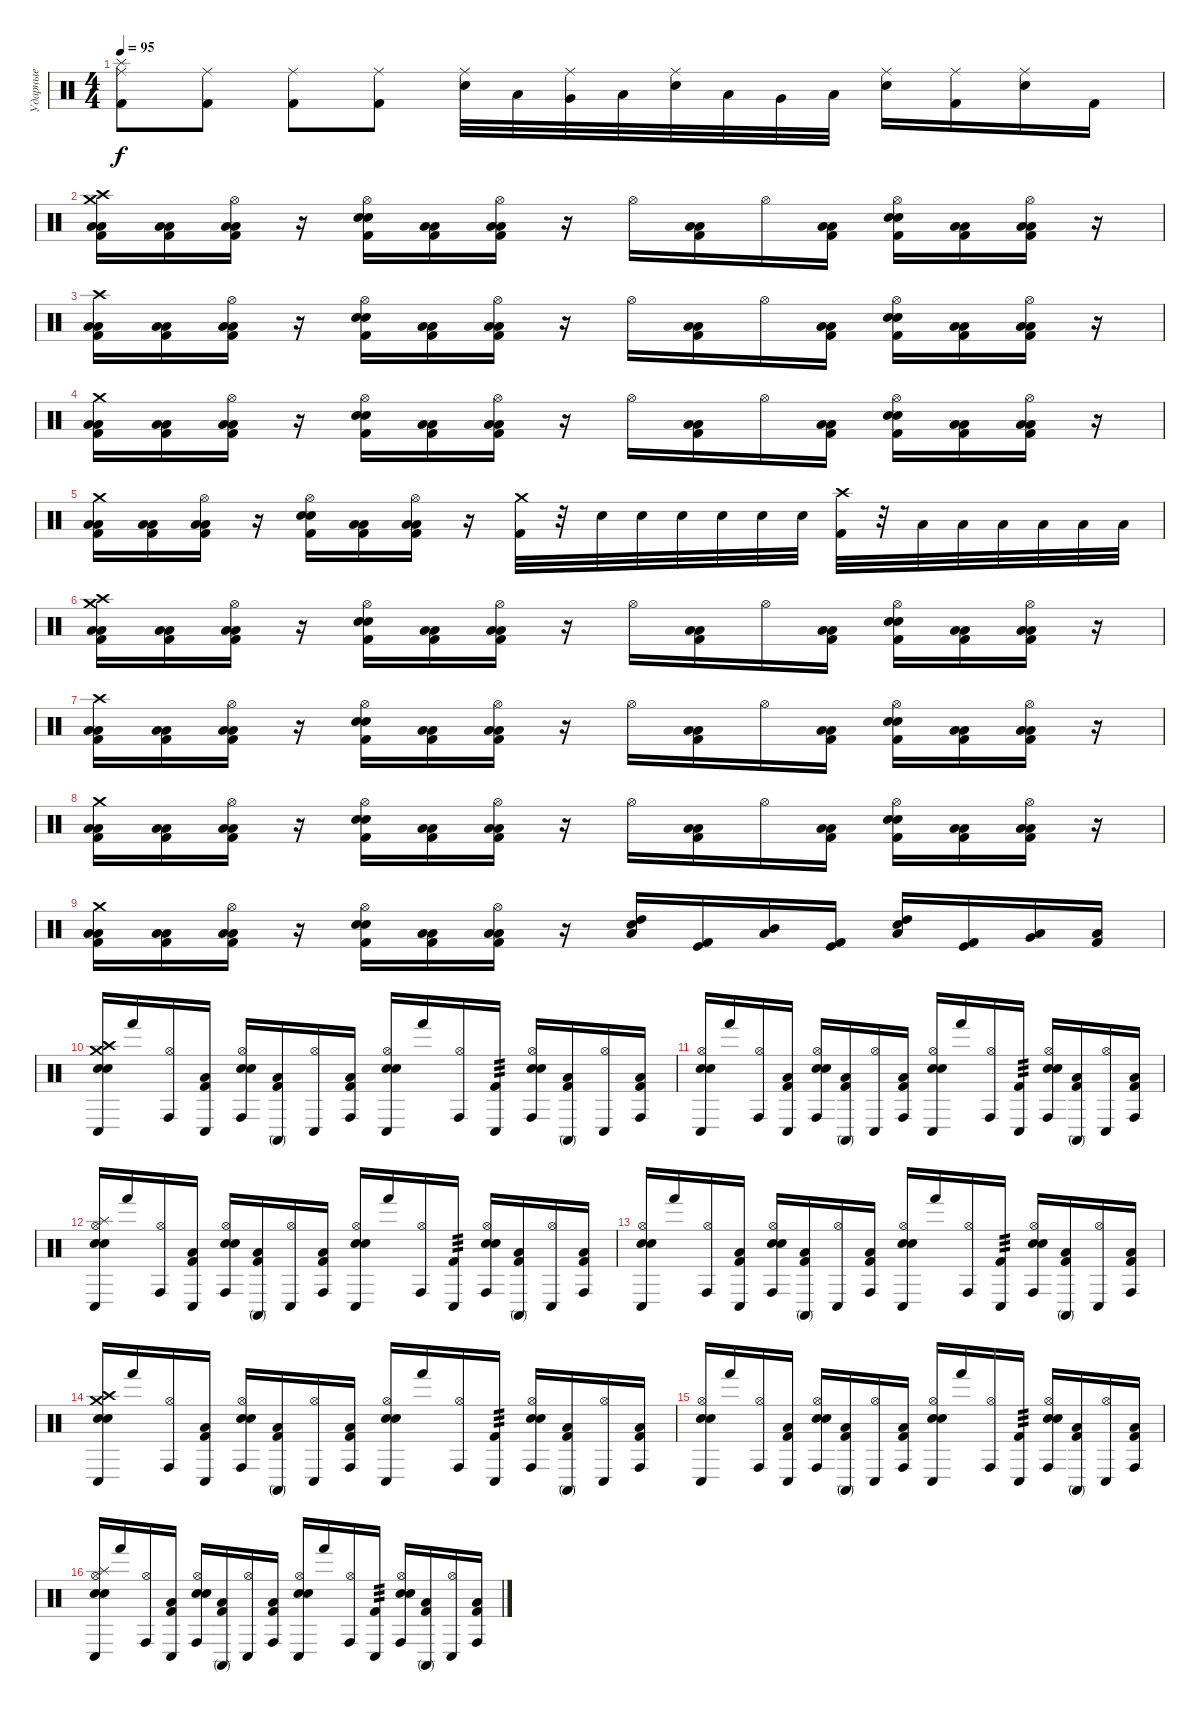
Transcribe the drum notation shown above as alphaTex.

\track ("Ударные" "Ударные") {instrument percussion}
\staff
\articulation defaults
\ts (4 4)
\tempo 95
\clef neutral
\ks c
("Splash (hit)" "Ride (middle)" "Kick (hit) 2").8{dy f} ("Ride (middle)" "Kick (hit) 2").8 ("Ride (middle)" "Kick (hit) 2").8 ("Ride (middle)" "Kick (hit) 2").8 ("Ride (middle)" "Electric Snare (hit)").32 "Low Tom (hit)".32 ("Ride (middle)" "Very Low Tom (hit)").32 "Low Floor Tom (hit)".32 ("Ride (middle)" "Electric Snare (hit)").32 "Low Tom (hit)".32 "Very Low Tom (hit)".32 "Low Floor Tom (hit)".32 ("Ride (middle)" "Electric Snare (hit)").16 ("Ride (middle)" "Kick (hit) 2").16 ("Ride (middle)" "Electric Snare (hit)").16 "Kick (hit) 2".16 |
("Crash medium (hit)" "Crash high (hit)" "Low Tom (hit)" "Low Floor Tom (hit)" "Kick (hit) 2").16 ("Low Tom (hit)" "Low Floor Tom (hit)" "Kick (hit) 2").16 ("Hi-Hat (open)" "Low Tom (hit)" "Low Floor Tom (hit)" "Kick (hit) 2").16 r.16 ("Hi-Hat (open)" "Electric Snare (hit)" "Snare (hit) 2" "Kick (hit) 2").16 ("Low Tom (hit)" "Low Floor Tom (hit)" "Kick (hit) 2").16 ("Hi-Hat (open)" "Low Tom (hit)" "Low Floor Tom (hit)" "Kick (hit) 2").16 r.16 "Hi-Hat (open)".16 ("Low Tom (hit)" "Low Floor Tom (hit)" "Kick (hit) 2").16 "Hi-Hat (open)".16 ("Low Tom (hit)" "Low Floor Tom (hit)" "Kick (hit) 2").16 ("Hi-Hat (open)" "Electric Snare (hit)" "Snare (hit) 2" "Kick (hit) 2").16 ("Low Tom (hit)" "Low Floor Tom (hit)" "Kick (hit) 2").16 ("Hi-Hat (open)" "Low Tom (hit)" "Low Floor Tom (hit)" "Kick (hit) 2").16 r.16 |
("Crash high (hit)" "Low Tom (hit)" "Low Floor Tom (hit)" "Kick (hit) 2").16 ("Low Tom (hit)" "Low Floor Tom (hit)" "Kick (hit) 2").16 ("Hi-Hat (open)" "Low Tom (hit)" "Low Floor Tom (hit)" "Kick (hit) 2").16 r.16 ("Hi-Hat (open)" "Electric Snare (hit)" "Snare (hit) 2" "Kick (hit) 2").16 ("Low Tom (hit)" "Low Floor Tom (hit)" "Kick (hit) 2").16 ("Hi-Hat (open)" "Low Tom (hit)" "Low Floor Tom (hit)" "Kick (hit) 2").16 r.16 "Hi-Hat (open)".16 ("Low Tom (hit)" "Low Floor Tom (hit)" "Kick (hit) 2").16 "Hi-Hat (open)".16 ("Low Tom (hit)" "Low Floor Tom (hit)" "Kick (hit) 2").16 ("Hi-Hat (open)" "Electric Snare (hit)" "Snare (hit) 2" "Kick (hit) 2").16 ("Low Tom (hit)" "Low Floor Tom (hit)" "Kick (hit) 2").16 ("Hi-Hat (open)" "Low Tom (hit)" "Low Floor Tom (hit)" "Kick (hit) 2").16 r.16 |
("Crash medium (hit)" "Low Tom (hit)" "Low Floor Tom (hit)" "Kick (hit) 2").16 ("Low Tom (hit)" "Low Floor Tom (hit)" "Kick (hit) 2").16 ("Hi-Hat (open)" "Low Tom (hit)" "Low Floor Tom (hit)" "Kick (hit) 2").16 r.16 ("Hi-Hat (open)" "Electric Snare (hit)" "Snare (hit) 2" "Kick (hit) 2").16 ("Low Tom (hit)" "Low Floor Tom (hit)" "Kick (hit) 2").16 ("Hi-Hat (open)" "Low Tom (hit)" "Low Floor Tom (hit)" "Kick (hit) 2").16 r.16 "Hi-Hat (open)".16 ("Low Tom (hit)" "Low Floor Tom (hit)" "Kick (hit) 2").16 "Hi-Hat (open)".16 ("Low Tom (hit)" "Low Floor Tom (hit)" "Kick (hit) 2").16 ("Hi-Hat (open)" "Electric Snare (hit)" "Snare (hit) 2" "Kick (hit) 2").16 ("Low Tom (hit)" "Low Floor Tom (hit)" "Kick (hit) 2").16 ("Hi-Hat (open)" "Low Tom (hit)" "Low Floor Tom (hit)" "Kick (hit) 2").16 r.16 |
("Crash medium (hit)" "Low Tom (hit)" "Low Floor Tom (hit)" "Kick (hit) 2").16 ("Low Tom (hit)" "Low Floor Tom (hit)" "Kick (hit) 2").16 ("Hi-Hat (open)" "Low Tom (hit)" "Low Floor Tom (hit)" "Kick (hit) 2").16 r.16 ("Hi-Hat (open)" "Electric Snare (hit)" "Snare (hit) 2" "Kick (hit) 2").16 ("Low Tom (hit)" "Low Floor Tom (hit)" "Kick (hit) 2").16 ("Hi-Hat (open)" "Low Tom (hit)" "Low Floor Tom (hit)" "Kick (hit) 2").16 r.16 ("Crash medium (hit)" "Kick (hit) 2").32 r.32 "Electric Snare (hit)".32 "Electric Snare (hit)".32 "Electric Snare (hit)".32 "Electric Snare (hit)".32 "Electric Snare (hit)".32 "Electric Snare (hit)".32 ("Crash high (hit)" "Kick (hit) 2").32 r.32 "Low Tom (hit)".32 "Low Tom (hit)".32 "Low Tom (hit)".32 "Low Tom (hit)".32 "Low Tom (hit)".32 "Low Tom (hit)".32 |
("Crash medium (hit)" "Crash high (hit)" "Low Tom (hit)" "Low Floor Tom (hit)" "Kick (hit) 2").16 ("Low Tom (hit)" "Low Floor Tom (hit)" "Kick (hit) 2").16 ("Hi-Hat (open)" "Low Tom (hit)" "Low Floor Tom (hit)" "Kick (hit) 2").16 r.16 ("Hi-Hat (open)" "Electric Snare (hit)" "Snare (hit) 2" "Kick (hit) 2").16 ("Low Tom (hit)" "Low Floor Tom (hit)" "Kick (hit) 2").16 ("Hi-Hat (open)" "Low Tom (hit)" "Low Floor Tom (hit)" "Kick (hit) 2").16 r.16 "Hi-Hat (open)".16 ("Low Tom (hit)" "Low Floor Tom (hit)" "Kick (hit) 2").16 "Hi-Hat (open)".16 ("Low Tom (hit)" "Low Floor Tom (hit)" "Kick (hit) 2").16 ("Hi-Hat (open)" "Electric Snare (hit)" "Snare (hit) 2" "Kick (hit) 2").16 ("Low Tom (hit)" "Low Floor Tom (hit)" "Kick (hit) 2").16 ("Hi-Hat (open)" "Low Tom (hit)" "Low Floor Tom (hit)" "Kick (hit) 2").16 r.16 |
("Crash high (hit)" "Low Tom (hit)" "Low Floor Tom (hit)" "Kick (hit) 2").16 ("Low Tom (hit)" "Low Floor Tom (hit)" "Kick (hit) 2").16 ("Hi-Hat (open)" "Low Tom (hit)" "Low Floor Tom (hit)" "Kick (hit) 2").16 r.16 ("Hi-Hat (open)" "Electric Snare (hit)" "Snare (hit) 2" "Kick (hit) 2").16 ("Low Tom (hit)" "Low Floor Tom (hit)" "Kick (hit) 2").16 ("Hi-Hat (open)" "Low Tom (hit)" "Low Floor Tom (hit)" "Kick (hit) 2").16 r.16 "Hi-Hat (open)".16 ("Low Tom (hit)" "Low Floor Tom (hit)" "Kick (hit) 2").16 "Hi-Hat (open)".16 ("Low Tom (hit)" "Low Floor Tom (hit)" "Kick (hit) 2").16 ("Hi-Hat (open)" "Electric Snare (hit)" "Snare (hit) 2" "Kick (hit) 2").16 ("Low Tom (hit)" "Low Floor Tom (hit)" "Kick (hit) 2").16 ("Hi-Hat (open)" "Low Tom (hit)" "Low Floor Tom (hit)" "Kick (hit) 2").16 r.16 |
("Crash medium (hit)" "Low Tom (hit)" "Low Floor Tom (hit)" "Kick (hit) 2").16 ("Low Tom (hit)" "Low Floor Tom (hit)" "Kick (hit) 2").16 ("Hi-Hat (open)" "Low Tom (hit)" "Low Floor Tom (hit)" "Kick (hit) 2").16 r.16 ("Hi-Hat (open)" "Electric Snare (hit)" "Snare (hit) 2" "Kick (hit) 2").16 ("Low Tom (hit)" "Low Floor Tom (hit)" "Kick (hit) 2").16 ("Hi-Hat (open)" "Low Tom (hit)" "Low Floor Tom (hit)" "Kick (hit) 2").16 r.16 "Hi-Hat (open)".16 ("Low Tom (hit)" "Low Floor Tom (hit)" "Kick (hit) 2").16 "Hi-Hat (open)".16 ("Low Tom (hit)" "Low Floor Tom (hit)" "Kick (hit) 2").16 ("Hi-Hat (open)" "Electric Snare (hit)" "Snare (hit) 2" "Kick (hit) 2").16 ("Low Tom (hit)" "Low Floor Tom (hit)" "Kick (hit) 2").16 ("Hi-Hat (open)" "Low Tom (hit)" "Low Floor Tom (hit)" "Kick (hit) 2").16 r.16 |
("Crash medium (hit)" "Low Tom (hit)" "Low Floor Tom (hit)" "Kick (hit) 2").16 ("Low Tom (hit)" "Low Floor Tom (hit)" "Kick (hit) 2").16 ("Hi-Hat (open)" "Low Tom (hit)" "Low Floor Tom (hit)" "Kick (hit) 2").16 r.16 ("Hi-Hat (open)" "Electric Snare (hit)" "Snare (hit) 2" "Kick (hit) 2").16 ("Low Tom (hit)" "Low Floor Tom (hit)" "Kick (hit) 2").16 ("Hi-Hat (open)" "Low Tom (hit)" "Low Floor Tom (hit)" "Kick (hit) 2").16 r.16 ("Low Tom (hit)" "High Tom (hit)" "Electric Snare (hit)").16{bd 60} ("Kick (hit)" "Kick (hit) 2").16 ("Mid Tom (hit)" "Low Tom (hit)").16{bu 60} ("Kick (hit)" "Kick (hit) 2").16 ("Low Tom (hit)" "High Tom (hit)" "Electric Snare (hit)").16{bd 60} ("Kick (hit)" "Kick (hit) 2").16 ("Very Low Tom (hit)" "Low Tom (hit)").16{bu 60} ("Low Floor Tom (hit)" "Kick (hit) 2").16 |
("Crash medium (hit)" "Crash high (hit)" "Conga low (hit)" "Snare (hit) 2" "Electric Snare (hit)").16 "Hand (hit)".16 ("Hi-Hat (open)" "Conga high (hit)").16 ("Conga low (hit)" "Low Floor Tom (hit)" "Kick (hit) 2").16 ("Hi-Hat (open)" "Conga high (hit)" "Snare (hit) 2" "Electric Snare (hit)").16 ("Conga high (mute)" "Low Floor Tom (hit)" "Kick (hit) 2").16 ("Hi-Hat (open)" "Conga low (hit)").16 ("Conga high (hit)" "Low Floor Tom (hit)" "Kick (hit) 2").16 ("Hi-Hat (open)" "Conga low (hit)" "Snare (hit) 2" "Electric Snare (hit)").16 "Hand (hit)".16 ("Hi-Hat (open)" "Conga high (hit)").16 ("Conga low (hit)" "Kick (hit) 2").16{tp 3} ("Hi-Hat (open)" "Conga high (hit)" "Snare (hit) 2" "Electric Snare (hit)").16 ("Conga high (mute)" "Low Floor Tom (hit)" "Kick (hit) 2").16 ("Hi-Hat (open)" "Conga low (hit)").16 ("Conga high (hit)" "Low Floor Tom (hit)" "Kick (hit) 2").16 |
("Hi-Hat (open)" "Conga low (hit)" "Snare (hit) 2" "Electric Snare (hit)").16 "Hand (hit)".16 ("Hi-Hat (open)" "Conga high (hit)").16 ("Conga low (hit)" "Low Floor Tom (hit)" "Kick (hit) 2").16 ("Hi-Hat (open)" "Conga high (hit)" "Snare (hit) 2" "Electric Snare (hit)").16 ("Conga high (mute)" "Low Floor Tom (hit)" "Kick (hit) 2").16 ("Hi-Hat (open)" "Conga low (hit)").16 ("Conga high (hit)" "Low Floor Tom (hit)" "Kick (hit) 2").16 ("Hi-Hat (open)" "Conga low (hit)" "Snare (hit) 2" "Electric Snare (hit)").16 "Hand (hit)".16 ("Hi-Hat (open)" "Conga high (hit)").16 ("Conga low (hit)" "Kick (hit) 2").16{tp 3} ("Hi-Hat (open)" "Conga high (hit)" "Snare (hit) 2" "Electric Snare (hit)").16 ("Conga high (mute)" "Low Floor Tom (hit)" "Kick (hit) 2").16 ("Hi-Hat (open)" "Conga low (hit)").16 ("Conga high (hit)" "Low Floor Tom (hit)" "Kick (hit) 2").16 |
("Splash (hit)" "Hi-Hat (open)" "Conga low (hit)" "Snare (hit) 2" "Electric Snare (hit)").16 "Hand (hit)".16 ("Hi-Hat (open)" "Conga high (hit)").16 ("Conga low (hit)" "Low Floor Tom (hit)" "Kick (hit) 2").16 ("Hi-Hat (open)" "Conga high (hit)" "Snare (hit) 2" "Electric Snare (hit)").16 ("Conga high (mute)" "Low Floor Tom (hit)" "Kick (hit) 2").16 ("Hi-Hat (open)" "Conga low (hit)").16 ("Conga high (hit)" "Low Floor Tom (hit)" "Kick (hit) 2").16 ("Hi-Hat (open)" "Conga low (hit)" "Snare (hit) 2" "Electric Snare (hit)").16 "Hand (hit)".16 ("Hi-Hat (open)" "Conga high (hit)").16 ("Conga low (hit)" "Kick (hit) 2").16{tp 3} ("Hi-Hat (open)" "Conga high (hit)" "Snare (hit) 2" "Electric Snare (hit)").16 ("Conga high (mute)" "Low Floor Tom (hit)" "Kick (hit) 2").16 ("Hi-Hat (open)" "Conga low (hit)").16 ("Conga high (hit)" "Low Floor Tom (hit)" "Kick (hit) 2").16 |
("Hi-Hat (open)" "Conga low (hit)" "Snare (hit) 2" "Electric Snare (hit)").16 "Hand (hit)".16 ("Hi-Hat (open)" "Conga high (hit)").16 ("Conga low (hit)" "Low Floor Tom (hit)" "Kick (hit) 2").16 ("Hi-Hat (open)" "Conga high (hit)" "Snare (hit) 2" "Electric Snare (hit)").16 ("Conga high (mute)" "Low Floor Tom (hit)" "Kick (hit) 2").16 ("Hi-Hat (open)" "Conga low (hit)").16 ("Conga high (hit)" "Low Floor Tom (hit)" "Kick (hit) 2").16 ("Hi-Hat (open)" "Conga low (hit)" "Snare (hit) 2" "Electric Snare (hit)").16 "Hand (hit)".16 ("Hi-Hat (open)" "Conga high (hit)").16 ("Conga low (hit)" "Kick (hit) 2").16{tp 3} ("Hi-Hat (open)" "Conga high (hit)" "Snare (hit) 2" "Electric Snare (hit)").16 ("Conga high (mute)" "Low Floor Tom (hit)" "Kick (hit) 2").16 ("Hi-Hat (open)" "Conga low (hit)").16 ("Conga high (hit)" "Low Floor Tom (hit)" "Kick (hit) 2").16 |
("Crash medium (hit)" "Crash high (hit)" "Conga low (hit)" "Snare (hit) 2" "Electric Snare (hit)").16 "Hand (hit)".16 ("Hi-Hat (open)" "Conga high (hit)").16 ("Conga low (hit)" "Low Floor Tom (hit)" "Kick (hit) 2").16 ("Hi-Hat (open)" "Conga high (hit)" "Snare (hit) 2" "Electric Snare (hit)").16 ("Conga high (mute)" "Low Floor Tom (hit)" "Kick (hit) 2").16 ("Hi-Hat (open)" "Conga low (hit)").16 ("Conga high (hit)" "Low Floor Tom (hit)" "Kick (hit) 2").16 ("Hi-Hat (open)" "Conga low (hit)" "Snare (hit) 2" "Electric Snare (hit)").16 "Hand (hit)".16 ("Hi-Hat (open)" "Conga high (hit)").16 ("Conga low (hit)" "Kick (hit) 2").16{tp 3} ("Hi-Hat (open)" "Conga high (hit)" "Snare (hit) 2" "Electric Snare (hit)").16 ("Conga high (mute)" "Low Floor Tom (hit)" "Kick (hit) 2").16 ("Hi-Hat (open)" "Conga low (hit)").16 ("Conga high (hit)" "Low Floor Tom (hit)" "Kick (hit) 2").16 |
("Hi-Hat (open)" "Conga low (hit)" "Snare (hit) 2" "Electric Snare (hit)").16 "Hand (hit)".16 ("Hi-Hat (open)" "Conga high (hit)").16 ("Conga low (hit)" "Low Floor Tom (hit)" "Kick (hit) 2").16 ("Hi-Hat (open)" "Conga high (hit)" "Snare (hit) 2" "Electric Snare (hit)").16 ("Conga high (mute)" "Low Floor Tom (hit)" "Kick (hit) 2").16 ("Hi-Hat (open)" "Conga low (hit)").16 ("Conga high (hit)" "Low Floor Tom (hit)" "Kick (hit) 2").16 ("Hi-Hat (open)" "Conga low (hit)" "Snare (hit) 2" "Electric Snare (hit)").16 "Hand (hit)".16 ("Hi-Hat (open)" "Conga high (hit)").16 ("Conga low (hit)" "Kick (hit) 2").16{tp 3} ("Hi-Hat (open)" "Conga high (hit)" "Snare (hit) 2" "Electric Snare (hit)").16 ("Conga high (mute)" "Low Floor Tom (hit)" "Kick (hit) 2").16 ("Hi-Hat (open)" "Conga low (hit)").16 ("Conga high (hit)" "Low Floor Tom (hit)" "Kick (hit) 2").16 |
("Splash (hit)" "Hi-Hat (open)" "Conga low (hit)" "Snare (hit) 2" "Electric Snare (hit)").16 "Hand (hit)".16 ("Hi-Hat (open)" "Conga high (hit)").16 ("Conga low (hit)" "Low Floor Tom (hit)" "Kick (hit) 2").16 ("Hi-Hat (open)" "Conga high (hit)" "Snare (hit) 2" "Electric Snare (hit)").16 ("Conga high (mute)" "Low Floor Tom (hit)" "Kick (hit) 2").16 ("Hi-Hat (open)" "Conga low (hit)").16 ("Conga high (hit)" "Low Floor Tom (hit)" "Kick (hit) 2").16 ("Hi-Hat (open)" "Conga low (hit)" "Snare (hit) 2" "Electric Snare (hit)").16 "Hand (hit)".16 ("Hi-Hat (open)" "Conga high (hit)").16 ("Conga low (hit)" "Kick (hit) 2").16{tp 3} ("Hi-Hat (open)" "Conga high (hit)" "Snare (hit) 2" "Electric Snare (hit)").16 ("Conga high (mute)" "Low Floor Tom (hit)" "Kick (hit) 2").16 ("Hi-Hat (open)" "Conga low (hit)").16 ("Conga high (hit)" "Low Floor Tom (hit)" "Kick (hit) 2").16
